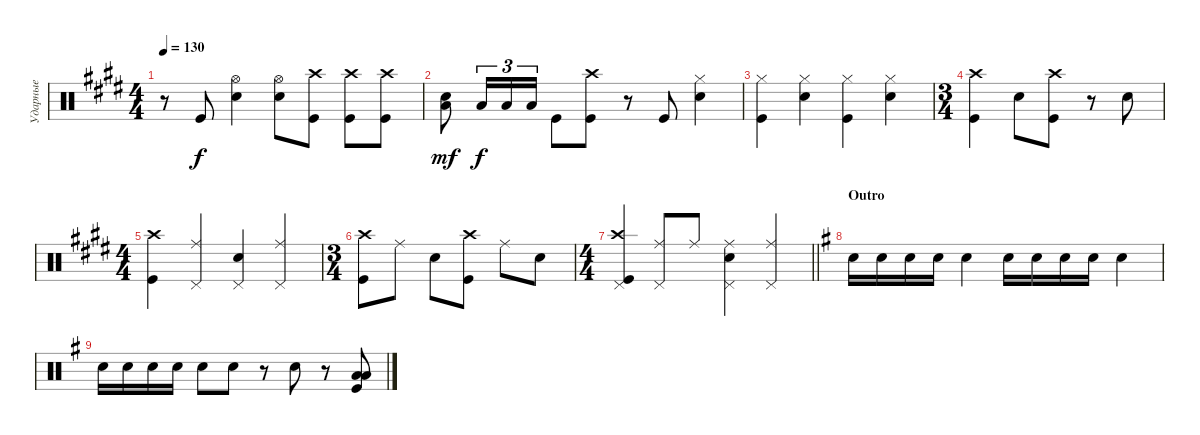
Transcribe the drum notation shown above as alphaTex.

\track ("Ударные" "Ударные") {instrument percussion}
\staff {score}
\articulation defaults
\ts (4 4)
\tempo 130
\clef neutral
\ks c#minor
r.8{dy f} "Kick (hit)".8 ("Snare (hit) 2" "Hi-Hat (open)").4 ("Snare (hit) 2" "Hi-Hat (open)").8 ("Crash high (hit)" "Kick (hit)").8 ("Kick (hit)" "Crash high (hit)").8 ("Kick (hit)" "Crash high (hit)").8 |
("Low Tom (hit)" "Snare (hit) 2").8{bd 120 dy mf} "Low Tom (hit)".16{tu (3 2) dy f} "Low Tom (hit)".16{tu (3 2)} "Low Tom (hit)".16{tu (3 2)} "Kick (hit)".8 ("Kick (hit)" "Crash high (hit)").8 r.8 "Kick (hit)".8 ("Snare (hit) 2" "Hi-Hat (closed)").4 |
("Kick (hit)" "Hi-Hat (closed)").4 ("Snare (hit) 2" "Hi-Hat (closed)").4 ("Kick (hit)" "Hi-Hat (closed)").4 ("Snare (hit) 2" "Hi-Hat (closed)").4 |
\ts (3 4)
("Kick (hit)" "Crash high (hit)").4 "Snare (hit) 2".8 ("Kick (hit)" "Crash high (hit)").8 r.8 "Snare (hit) 2".8 |
\ts (4 4)
("Kick (hit)" "Crash high (hit)").4 ("Pedal Hi-Hat (hit)" "Ride (middle)").4 ("Pedal Hi-Hat (hit)" "Snare (hit) 2").4 ("Pedal Hi-Hat (hit)" "Ride (middle)").4 |
\ts (3 4)
("Kick (hit)" "Crash high (hit)").8 "Ride (middle)".8 "Snare (hit) 2".8 ("Kick (hit)" "Crash high (hit)").8 "Ride (middle)".8 "Snare (hit) 2".8 |
\ts (4 4)
\barLineRight lightlight
("Kick (hit)" "Crash high (hit)" "Pedal Hi-Hat (hit)").4 ("Ride (middle)" "Pedal Hi-Hat (hit)").8 "Ride (middle)".8 ("Snare (hit) 2" "Ride (middle)" "Pedal Hi-Hat (hit)").4 ("Ride (middle)" "Pedal Hi-Hat (hit)").4 |
\section ("" "Outro")
\ks eminor "Snare (hit) 2".16 "Snare (hit) 2".16 "Snare (hit) 2".16 "Snare (hit) 2".16 "Snare (hit) 2".4 "Snare (hit) 2".16 "Snare (hit) 2".16 "Snare (hit) 2".16 "Snare (hit) 2".16 "Snare (hit) 2".4
|
"Snare (hit) 2".16 "Snare (hit) 2".16 "Snare (hit) 2".16 "Snare (hit) 2".16 "Snare (hit) 2".8 "Snare (hit) 2".8 r.8 "Snare (hit) 2".8 r.8 ("Low Tom (hit)" "Low Tom (hit)" "Kick (hit)").8{bd 480}
